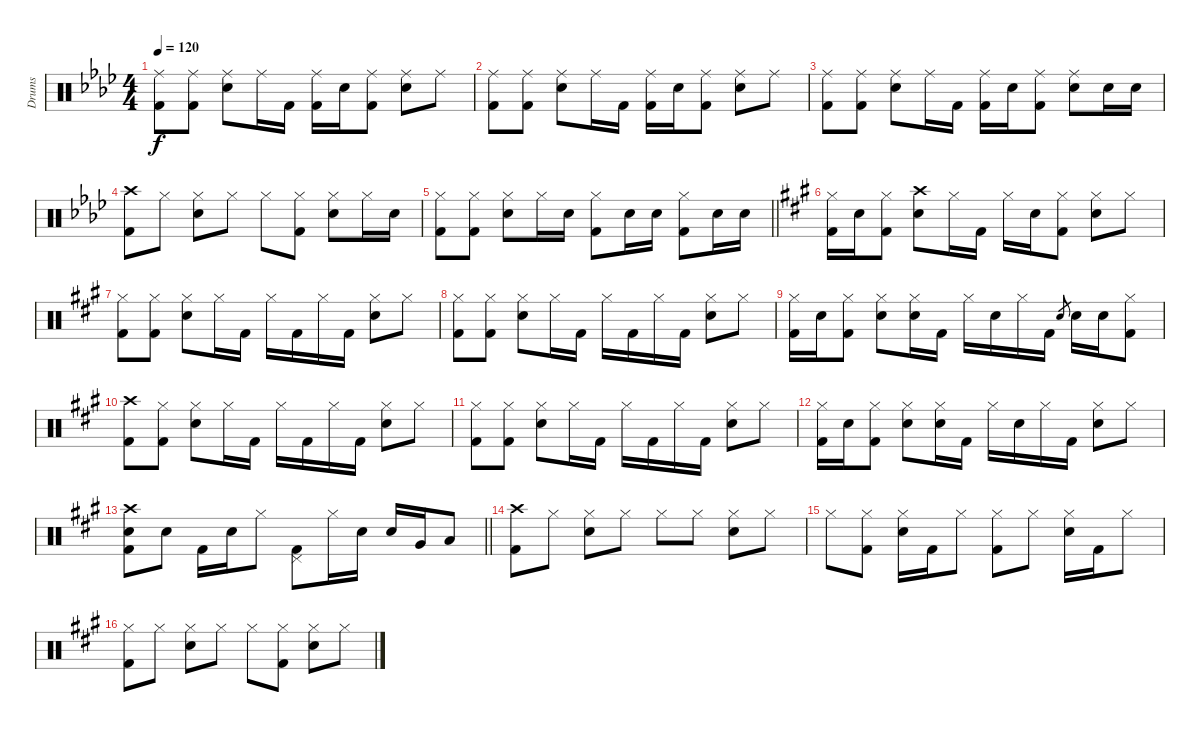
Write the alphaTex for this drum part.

\track ("Drums" "Drums") {instrument percussion}
\staff {score}
\articulation defaults
\ts (4 4)
\tempo 120
\clef neutral
\ks ab
("Ride (middle)" "Kick (hit) 2").8{dy f} ("Ride (middle)" "Kick (hit) 2").8 ("Ride (middle)" "Electric Snare (hit)").8 "Ride (middle)".16 "Kick (hit) 2".16 ("Ride (middle)" "Kick (hit) 2").16 "Electric Snare (hit)".16 ("Ride (middle)" "Kick (hit) 2").8 ("Ride (middle)" "Electric Snare (hit)").8 "Ride (middle)".8 |
("Ride (middle)" "Kick (hit) 2").8 ("Ride (middle)" "Kick (hit) 2").8 ("Ride (middle)" "Electric Snare (hit)").8 "Ride (middle)".16 "Kick (hit) 2".16 ("Ride (middle)" "Kick (hit) 2").16 "Electric Snare (hit)".16 ("Ride (middle)" "Kick (hit) 2").8 ("Ride (middle)" "Electric Snare (hit)").8 "Ride (middle)".8 |
("Ride (middle)" "Kick (hit) 2").8 ("Ride (middle)" "Kick (hit) 2").8 ("Ride (middle)" "Electric Snare (hit)").8 "Ride (middle)".16 "Kick (hit) 2".16 ("Ride (middle)" "Kick (hit) 2").16 "Electric Snare (hit)".16 ("Ride (middle)" "Kick (hit) 2").8 ("Ride (middle)" "Electric Snare (hit)").8 "Electric Snare (hit)".16 "Electric Snare (hit)".16 |
("Crash high (hit)" "Kick (hit) 2").8 "Hi-Hat (closed)".8 ("Hi-Hat (closed)" "Electric Snare (hit)").8 "Hi-Hat (closed)".8 "Hi-Hat (closed)".8 ("Hi-Hat (closed)" "Kick (hit) 2").8 ("Hi-Hat (closed)" "Electric Snare (hit)").8 "Hi-Hat (closed)".16 "Electric Snare (hit)".16 |
\barLineRight lightlight
("Hi-Hat (closed)" "Kick (hit) 2").8 ("Hi-Hat (closed)" "Kick (hit) 2").8 ("Hi-Hat (closed)" "Electric Snare (hit)").8 "Hi-Hat (closed)".16 "Electric Snare (hit)".16 ("Hi-Hat (closed)" "Kick (hit) 2").8 "Electric Snare (hit)".16 "Electric Snare (hit)".16 ("Hi-Hat (closed)" "Kick (hit) 2").8 "Electric Snare (hit)".16 "Electric Snare (hit)".16 |
\ks a
("Hi-Hat (closed)" "Kick (hit) 2").16 "Electric Snare (hit)".16 ("Hi-Hat (closed)" "Kick (hit) 2").8 ("Crash high (hit)" "Electric Snare (hit)").8 "Hi-Hat (closed)".16 "Kick (hit) 2".16 "Hi-Hat (closed)".16 "Electric Snare (hit)".16 ("Hi-Hat (closed)" "Kick (hit) 2").8 ("Hi-Hat (closed)" "Electric Snare (hit)").8 "Hi-Hat (closed)".8 |
("Hi-Hat (closed)" "Kick (hit) 2").8 ("Hi-Hat (closed)" "Kick (hit) 2").8 ("Hi-Hat (closed)" "Electric Snare (hit)").8 "Hi-Hat (closed)".16 "Kick (hit) 2".16 "Hi-Hat (closed)".16 "Kick (hit) 2".16 "Hi-Hat (closed)".16 "Kick (hit) 2".16 ("Hi-Hat (closed)" "Electric Snare (hit)").8 "Hi-Hat (closed)".8 |
("Hi-Hat (closed)" "Kick (hit) 2").8 ("Hi-Hat (closed)" "Kick (hit) 2").8 ("Hi-Hat (closed)" "Electric Snare (hit)").8 "Hi-Hat (closed)".16 "Kick (hit) 2".16 "Hi-Hat (closed)".16 "Kick (hit) 2".16 "Hi-Hat (closed)".16 "Kick (hit) 2".16 ("Hi-Hat (closed)" "Electric Snare (hit)").8 "Hi-Hat (closed)".8 |
("Hi-Hat (closed)" "Kick (hit) 2").16 "Electric Snare (hit)".16 ("Hi-Hat (closed)" "Kick (hit) 2").8 ("Hi-Hat (closed)" "Electric Snare (hit)").8 ("Hi-Hat (closed)" "Electric Snare (hit)").16 "Kick (hit) 2".16 "Hi-Hat (closed)".16 "Electric Snare (hit)".16 "Hi-Hat (closed)".16 "Kick (hit) 2".16 "Electric Snare (hit)".8{gr} "Electric Snare (hit)".16 "Electric Snare (hit)".16 ("Hi-Hat (closed)" "Kick (hit) 2").8 |
("Crash high (hit)" "Kick (hit) 2").8 ("Hi-Hat (closed)" "Kick (hit) 2").8 ("Hi-Hat (closed)" "Electric Snare (hit)").8 "Hi-Hat (closed)".16 "Kick (hit) 2".16 "Hi-Hat (closed)".16 "Kick (hit) 2".16 "Hi-Hat (closed)".16 "Kick (hit) 2".16 ("Hi-Hat (closed)" "Electric Snare (hit)").8 "Hi-Hat (closed)".8 |
("Hi-Hat (closed)" "Kick (hit) 2").8 ("Hi-Hat (closed)" "Kick (hit) 2").8 ("Hi-Hat (closed)" "Electric Snare (hit)").8 "Hi-Hat (closed)".16 "Kick (hit) 2".16 "Hi-Hat (closed)".16 "Kick (hit) 2".16 "Hi-Hat (closed)".16 "Kick (hit) 2".16 ("Hi-Hat (closed)" "Electric Snare (hit)").8 "Hi-Hat (closed)".8 |
("Hi-Hat (closed)" "Kick (hit) 2").16 "Electric Snare (hit)".16 ("Hi-Hat (closed)" "Kick (hit) 2").8 ("Hi-Hat (closed)" "Electric Snare (hit)").8 ("Hi-Hat (closed)" "Electric Snare (hit)").16 "Kick (hit) 2".16 "Hi-Hat (closed)".16 "Electric Snare (hit)".16 "Hi-Hat (closed)".16 "Kick (hit) 2".16 ("Hi-Hat (closed)" "Electric Snare (hit)").8 "Hi-Hat (closed)".8 |
\barLineRight lightlight
("Crash high (hit)" "Electric Snare (hit)" "Kick (hit) 2").8 "Electric Snare (hit)".8 "Kick (hit) 2".16 "Electric Snare (hit)".16 "Hi-Hat (closed)".8 ("Pedal Hi-Hat (hit)" "Kick (hit) 2").8 "Hi-Hat (closed)".16 "Electric Snare (hit)".16 "Electric Snare (hit)".16 "Very Low Tom (hit)".16 "Low Floor Tom (hit)".8 |
("Crash high (hit)" "Kick (hit) 2").8 "Hi-Hat (closed)".8 ("Hi-Hat (closed)" "Electric Snare (hit)").8 "Hi-Hat (closed)".8 "Hi-Hat (closed)".8 "Hi-Hat (closed)".8 ("Hi-Hat (closed)" "Electric Snare (hit)").8 "Hi-Hat (closed)".8 |
"Hi-Hat (closed)".8 ("Hi-Hat (closed)" "Kick (hit) 2").8 ("Hi-Hat (closed)" "Electric Snare (hit)").16 "Kick (hit) 2".16 "Hi-Hat (closed)".8 ("Hi-Hat (closed)" "Kick (hit) 2").8 "Hi-Hat (closed)".8 ("Hi-Hat (closed)" "Electric Snare (hit)").16 "Kick (hit) 2".16 "Hi-Hat (closed)".8 |
("Hi-Hat (closed)" "Kick (hit) 2").8 "Hi-Hat (closed)".8 ("Hi-Hat (closed)" "Electric Snare (hit)").8 "Hi-Hat (closed)".8 "Hi-Hat (closed)".8 ("Hi-Hat (closed)" "Kick (hit) 2").8 ("Hi-Hat (closed)" "Electric Snare (hit)").8 "Hi-Hat (closed)".8
